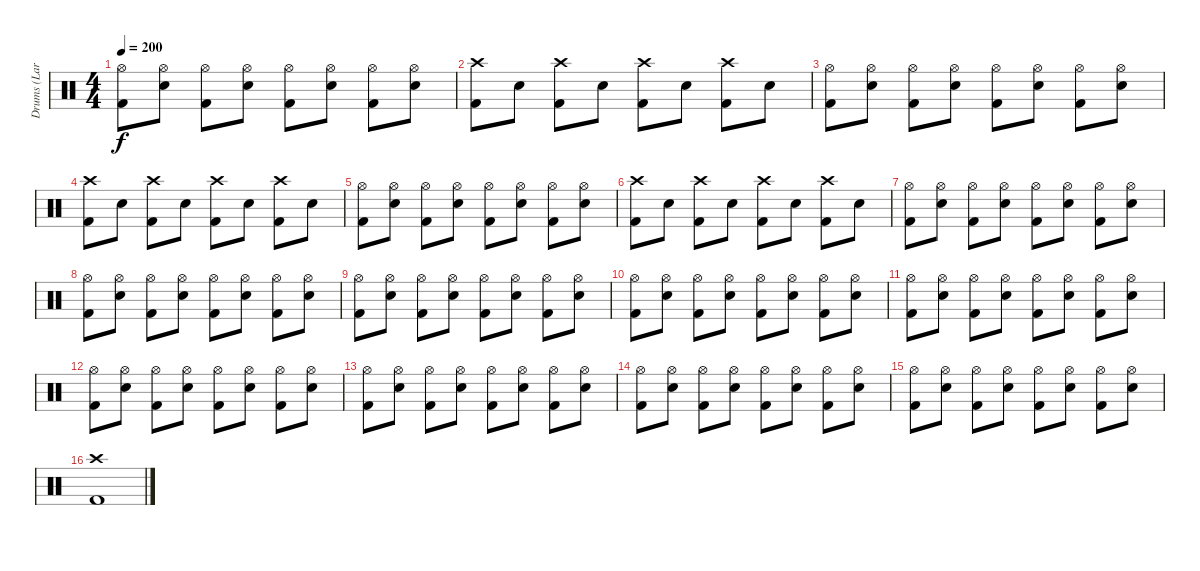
\track ("Drums (Lars Ulrich)" "Drums (Lar") {instrument percussion}
\staff {score}
\articulation defaults
\ts (4 4)
\tempo 200
\clef neutral
\ks c
("Hi-Hat (open)" "Kick (hit) 2").8{dy f} ("Hi-Hat (open)" "Snare (hit) 2").8 ("Hi-Hat (open)" "Kick (hit) 2").8 ("Hi-Hat (open)" "Snare (hit) 2").8 ("Hi-Hat (open)" "Kick (hit) 2").8 ("Hi-Hat (open)" "Snare (hit) 2").8 ("Hi-Hat (open)" "Kick (hit) 2").8 ("Hi-Hat (open)" "Snare (hit) 2").8 |
("Crash high (hit)" "Kick (hit) 2").8 "Snare (hit) 2".8 ("Crash high (hit)" "Kick (hit) 2").8 "Snare (hit) 2".8 ("Crash high (hit)" "Kick (hit) 2").8 "Snare (hit) 2".8 ("Crash high (hit)" "Kick (hit) 2").8 "Snare (hit) 2".8 |
("Hi-Hat (open)" "Kick (hit) 2").8 ("Hi-Hat (open)" "Snare (hit) 2").8 ("Hi-Hat (open)" "Kick (hit) 2").8 ("Hi-Hat (open)" "Snare (hit) 2").8 ("Hi-Hat (open)" "Kick (hit) 2").8 ("Hi-Hat (open)" "Snare (hit) 2").8 ("Hi-Hat (open)" "Kick (hit) 2").8 ("Hi-Hat (open)" "Snare (hit) 2").8 |
("Crash high (hit)" "Kick (hit) 2").8 "Snare (hit) 2".8 ("Crash high (hit)" "Kick (hit) 2").8 "Snare (hit) 2".8 ("Crash high (hit)" "Kick (hit) 2").8 "Snare (hit) 2".8 ("Crash high (hit)" "Kick (hit) 2").8 "Snare (hit) 2".8 |
("Hi-Hat (open)" "Kick (hit) 2").8 ("Hi-Hat (open)" "Snare (hit) 2").8 ("Hi-Hat (open)" "Kick (hit) 2").8 ("Hi-Hat (open)" "Snare (hit) 2").8 ("Hi-Hat (open)" "Kick (hit) 2").8 ("Hi-Hat (open)" "Snare (hit) 2").8 ("Hi-Hat (open)" "Kick (hit) 2").8 ("Hi-Hat (open)" "Snare (hit) 2").8 |
("Crash high (hit)" "Kick (hit) 2").8 "Snare (hit) 2".8 ("Crash high (hit)" "Kick (hit) 2").8 "Snare (hit) 2".8 ("Crash high (hit)" "Kick (hit) 2").8 "Snare (hit) 2".8 ("Crash high (hit)" "Kick (hit) 2").8 "Snare (hit) 2".8 |
("Hi-Hat (open)" "Kick (hit) 2").8 ("Hi-Hat (open)" "Snare (hit) 2").8 ("Hi-Hat (open)" "Kick (hit) 2").8 ("Hi-Hat (open)" "Snare (hit) 2").8 ("Hi-Hat (open)" "Kick (hit) 2").8 ("Hi-Hat (open)" "Snare (hit) 2").8 ("Hi-Hat (open)" "Kick (hit) 2").8 ("Hi-Hat (open)" "Snare (hit) 2").8 |
("Hi-Hat (open)" "Kick (hit) 2").8 ("Hi-Hat (open)" "Snare (hit) 2").8 ("Hi-Hat (open)" "Kick (hit) 2").8 ("Hi-Hat (open)" "Snare (hit) 2").8 ("Hi-Hat (open)" "Kick (hit) 2").8 ("Hi-Hat (open)" "Snare (hit) 2").8 ("Hi-Hat (open)" "Kick (hit) 2").8 ("Hi-Hat (open)" "Snare (hit) 2").8 |
("Hi-Hat (open)" "Kick (hit) 2").8 ("Hi-Hat (open)" "Snare (hit) 2").8 ("Hi-Hat (open)" "Kick (hit) 2").8 ("Hi-Hat (open)" "Snare (hit) 2").8 ("Hi-Hat (open)" "Kick (hit) 2").8 ("Hi-Hat (open)" "Snare (hit) 2").8 ("Hi-Hat (open)" "Kick (hit) 2").8 ("Hi-Hat (open)" "Snare (hit) 2").8 |
("Hi-Hat (open)" "Kick (hit) 2").8 ("Hi-Hat (open)" "Snare (hit) 2").8 ("Hi-Hat (open)" "Kick (hit) 2").8 ("Hi-Hat (open)" "Snare (hit) 2").8 ("Hi-Hat (open)" "Kick (hit) 2").8 ("Hi-Hat (open)" "Snare (hit) 2").8 ("Hi-Hat (open)" "Kick (hit) 2").8 ("Hi-Hat (open)" "Snare (hit) 2").8 |
("Hi-Hat (open)" "Kick (hit) 2").8 ("Hi-Hat (open)" "Snare (hit) 2").8 ("Hi-Hat (open)" "Kick (hit) 2").8 ("Hi-Hat (open)" "Snare (hit) 2").8 ("Hi-Hat (open)" "Kick (hit) 2").8 ("Hi-Hat (open)" "Snare (hit) 2").8 ("Hi-Hat (open)" "Kick (hit) 2").8 ("Hi-Hat (open)" "Snare (hit) 2").8 |
("Hi-Hat (open)" "Kick (hit) 2").8 ("Hi-Hat (open)" "Snare (hit) 2").8 ("Hi-Hat (open)" "Kick (hit) 2").8 ("Hi-Hat (open)" "Snare (hit) 2").8 ("Hi-Hat (open)" "Kick (hit) 2").8 ("Hi-Hat (open)" "Snare (hit) 2").8 ("Hi-Hat (open)" "Kick (hit) 2").8 ("Hi-Hat (open)" "Snare (hit) 2").8 |
("Hi-Hat (open)" "Kick (hit) 2").8 ("Hi-Hat (open)" "Snare (hit) 2").8 ("Hi-Hat (open)" "Kick (hit) 2").8 ("Hi-Hat (open)" "Snare (hit) 2").8 ("Hi-Hat (open)" "Kick (hit) 2").8 ("Hi-Hat (open)" "Snare (hit) 2").8 ("Hi-Hat (open)" "Kick (hit) 2").8 ("Hi-Hat (open)" "Snare (hit) 2").8 |
("Hi-Hat (open)" "Kick (hit) 2").8 ("Hi-Hat (open)" "Snare (hit) 2").8 ("Hi-Hat (open)" "Kick (hit) 2").8 ("Hi-Hat (open)" "Snare (hit) 2").8 ("Hi-Hat (open)" "Kick (hit) 2").8 ("Hi-Hat (open)" "Snare (hit) 2").8 ("Hi-Hat (open)" "Kick (hit) 2").8 ("Hi-Hat (open)" "Snare (hit) 2").8 |
("Hi-Hat (open)" "Kick (hit) 2").8 ("Hi-Hat (open)" "Snare (hit) 2").8 ("Hi-Hat (open)" "Kick (hit) 2").8 ("Hi-Hat (open)" "Snare (hit) 2").8 ("Hi-Hat (open)" "Kick (hit) 2").8 ("Hi-Hat (open)" "Snare (hit) 2").8 ("Hi-Hat (open)" "Kick (hit) 2").8 ("Hi-Hat (open)" "Snare (hit) 2").8 |
("Crash high (hit)" "Kick (hit) 2").1
